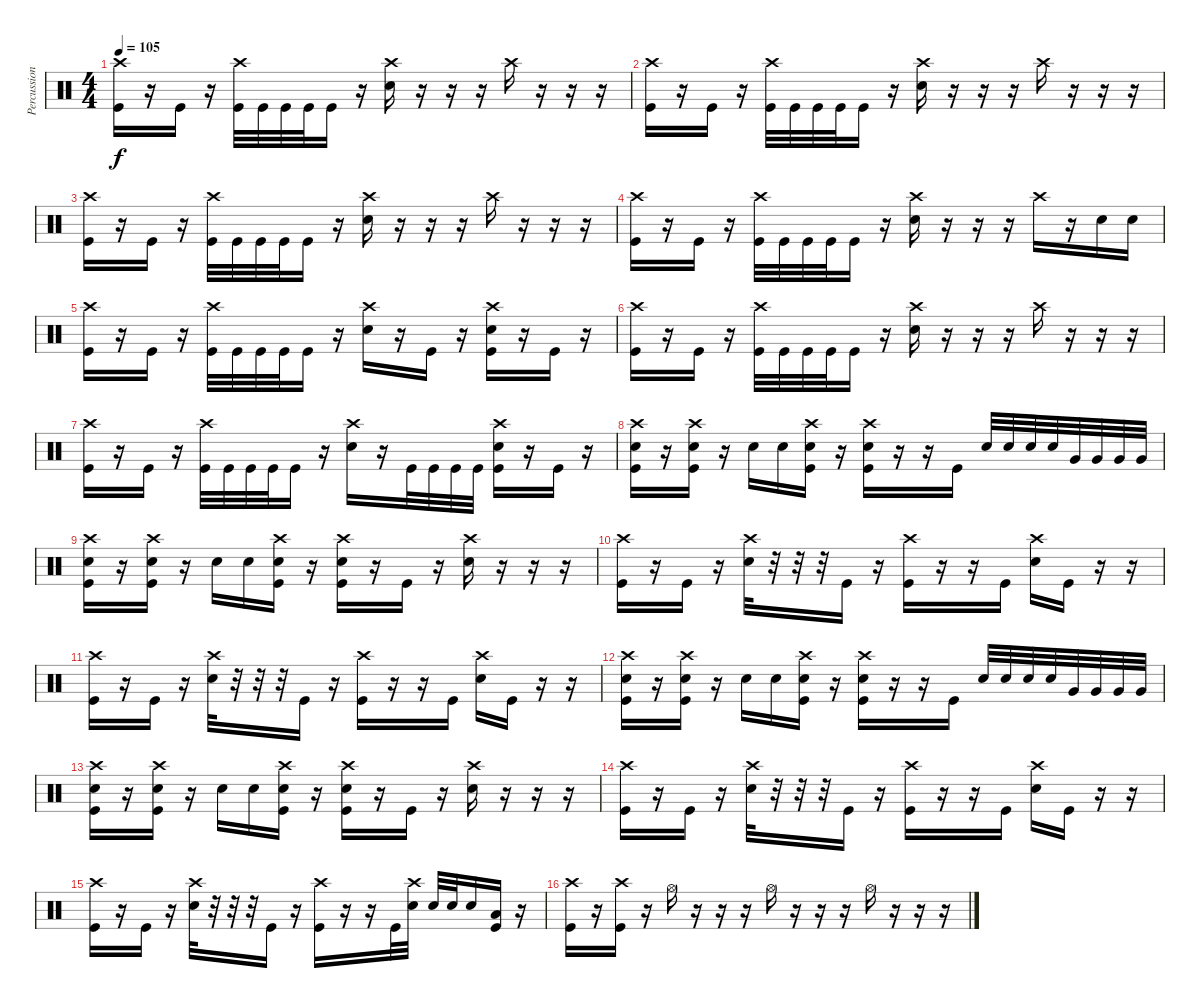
\track ("Percussion" "Percussion") {instrument percussion}
\staff {score}
\articulation defaults
\ts (4 4)
\tempo 105
\clef neutral
\ks c
("Crash high (hit)" "Kick (hit)").16{dy f} r.16 "Kick (hit)".16 r.16 ("Crash high (hit)" "Kick (hit)").32 "Kick (hit)".32 "Kick (hit)".32 "Kick (hit)".32 "Kick (hit)".16 r.16 ("Crash high (hit)" "Snare (hit) 2").16 r.16 r.16 r.16 "Crash high (hit)".16 r.16 r.16 r.16 |
("Crash high (hit)" "Kick (hit)").16 r.16 "Kick (hit)".16 r.16 ("Crash high (hit)" "Kick (hit)").32 "Kick (hit)".32 "Kick (hit)".32 "Kick (hit)".32 "Kick (hit)".16 r.16 ("Crash high (hit)" "Snare (hit) 2").16 r.16 r.16 r.16 "Crash high (hit)".16 r.16 r.16 r.16 |
("Crash high (hit)" "Kick (hit)").16 r.16 "Kick (hit)".16 r.16 ("Crash high (hit)" "Kick (hit)").32 "Kick (hit)".32 "Kick (hit)".32 "Kick (hit)".32 "Kick (hit)".16 r.16 ("Crash high (hit)" "Snare (hit) 2").16 r.16 r.16 r.16 "Crash high (hit)".16 r.16 r.16 r.16 |
("Crash high (hit)" "Kick (hit)").16 r.16 "Kick (hit)".16 r.16 ("Crash high (hit)" "Kick (hit)").32 "Kick (hit)".32 "Kick (hit)".32 "Kick (hit)".32 "Kick (hit)".16 r.16 ("Crash high (hit)" "Snare (hit) 2").16 r.16 r.16 r.16 "Crash high (hit)".16 r.16 "Snare (hit) 2".16 "Snare (hit) 2".16 |
("Crash high (hit)" "Kick (hit)").16 r.16 "Kick (hit)".16 r.16 ("Crash high (hit)" "Kick (hit)").32 "Kick (hit)".32 "Kick (hit)".32 "Kick (hit)".32 "Kick (hit)".16 r.16 ("Crash high (hit)" "Snare (hit) 2").16 r.16 "Kick (hit)".16 r.16 ("Crash high (hit)" "Snare (hit) 2" "Kick (hit)").16 r.16 "Kick (hit)".16 r.16 |
("Crash high (hit)" "Kick (hit)").16 r.16 "Kick (hit)".16 r.16 ("Crash high (hit)" "Kick (hit)").32 "Kick (hit)".32 "Kick (hit)".32 "Kick (hit)".32 "Kick (hit)".16 r.16 ("Crash high (hit)" "Snare (hit) 2").16 r.16 r.16 r.16 "Crash high (hit)".16 r.16 r.16 r.16 |
("Crash high (hit)" "Kick (hit)").16 r.16 "Kick (hit)".16 r.16 ("Crash high (hit)" "Kick (hit)").32 "Kick (hit)".32 "Kick (hit)".32 "Kick (hit)".32 "Kick (hit)".16 r.16 ("Crash high (hit)" "Snare (hit) 2").16 r.16 "Kick (hit)".32 "Kick (hit)".32 "Kick (hit)".32 "Kick (hit)".32 ("Crash high (hit)" "Snare (hit) 2" "Kick (hit)").16 r.16 "Kick (hit)".16 r.16 |
("Crash high (hit)" "Snare (hit) 2" "Kick (hit)").16 r.16 ("Crash high (hit)" "Snare (hit) 2" "Kick (hit)").16 r.16 "Snare (hit) 2".16 "Snare (hit) 2".16 ("Crash high (hit)" "Snare (hit) 2" "Kick (hit)").16 r.16 ("Crash high (hit)" "Snare (hit) 2" "Kick (hit)").16 r.16 r.16 "Kick (hit)".16 "Snare (hit) 2".32 "Snare (hit) 2".32 "Snare (hit) 2".32 "Snare (hit) 2".32 "Very Low Tom (hit)".32 "Very Low Tom (hit)".32 "Very Low Tom (hit)".32 "Very Low Tom (hit)".32 |
("Crash high (hit)" "Snare (hit) 2" "Kick (hit)").16 r.16 ("Crash high (hit)" "Snare (hit) 2" "Kick (hit)").16 r.16 "Snare (hit) 2".16 "Snare (hit) 2".16 ("Crash high (hit)" "Snare (hit) 2" "Kick (hit)").16 r.16 ("Crash high (hit)" "Snare (hit) 2" "Kick (hit)").16 r.16 "Kick (hit)".16 r.16 ("Crash high (hit)" "Snare (hit) 2").16 r.16 r.16 r.16 |
("Crash high (hit)" "Kick (hit)").16 r.16 "Kick (hit)".16 r.16 ("Crash high (hit)" "Snare (hit) 2").32 r.32 r.32 r.32 "Kick (hit)".16 r.16 ("Crash high (hit)" "Kick (hit)").16 r.16 r.16 "Kick (hit)".16 ("Crash high (hit)" "Snare (hit) 2").16 "Kick (hit)".16 r.16 r.16 |
("Crash high (hit)" "Kick (hit)").16 r.16 "Kick (hit)".16 r.16 ("Crash high (hit)" "Snare (hit) 2").32 r.32 r.32 r.32 "Kick (hit)".16 r.16 ("Crash high (hit)" "Kick (hit)").16 r.16 r.16 "Kick (hit)".16 ("Crash high (hit)" "Snare (hit) 2").16 "Kick (hit)".16 r.16 r.16 |
("Crash high (hit)" "Snare (hit) 2" "Kick (hit)").16 r.16 ("Crash high (hit)" "Snare (hit) 2" "Kick (hit)").16 r.16 "Snare (hit) 2".16 "Snare (hit) 2".16 ("Crash high (hit)" "Snare (hit) 2" "Kick (hit)").16 r.16 ("Crash high (hit)" "Snare (hit) 2" "Kick (hit)").16 r.16 r.16 "Kick (hit)".16 "Snare (hit) 2".32 "Snare (hit) 2".32 "Snare (hit) 2".32 "Snare (hit) 2".32 "Very Low Tom (hit)".32 "Very Low Tom (hit)".32 "Very Low Tom (hit)".32 "Very Low Tom (hit)".32 |
("Crash high (hit)" "Snare (hit) 2" "Kick (hit)").16 r.16 ("Crash high (hit)" "Snare (hit) 2" "Kick (hit)").16 r.16 "Snare (hit) 2".16 "Snare (hit) 2".16 ("Crash high (hit)" "Snare (hit) 2" "Kick (hit)").16 r.16 ("Crash high (hit)" "Snare (hit) 2" "Kick (hit)").16 r.16 "Kick (hit)".16 r.16 ("Crash high (hit)" "Snare (hit) 2").16 r.16 r.16 r.16 |
("Crash high (hit)" "Kick (hit)").16 r.16 "Kick (hit)".16 r.16 ("Crash high (hit)" "Snare (hit) 2").32 r.32 r.32 r.32 "Kick (hit)".16 r.16 ("Crash high (hit)" "Kick (hit)").16 r.16 r.16 "Kick (hit)".16 ("Crash high (hit)" "Snare (hit) 2").16 "Kick (hit)".16 r.16 r.16 |
("Crash high (hit)" "Kick (hit)").16 r.16 "Kick (hit)".16 r.16 ("Crash high (hit)" "Snare (hit) 2").32 r.32 r.32 r.32 "Kick (hit)".16 r.16 ("Crash high (hit)" "Kick (hit)").16 r.16 r.16 "Kick (hit)".32 ("Crash high (hit)" "Snare (hit) 2").32 "Snare (hit) 2".32 "Snare (hit) 2".32 "Snare (hit) 2".16 ("Low Floor Tom (hit)" "Kick (hit)").16 r.16 |
("Crash high (hit)" "Kick (hit)").16 r.16 ("Crash high (hit)" "Kick (hit)").16 r.16 "Hi-Hat (open)".16 r.16 r.16 r.16 "Hi-Hat (open)".16 r.16 r.16 r.16 "Hi-Hat (open)".16 r.16 r.16 r.16
